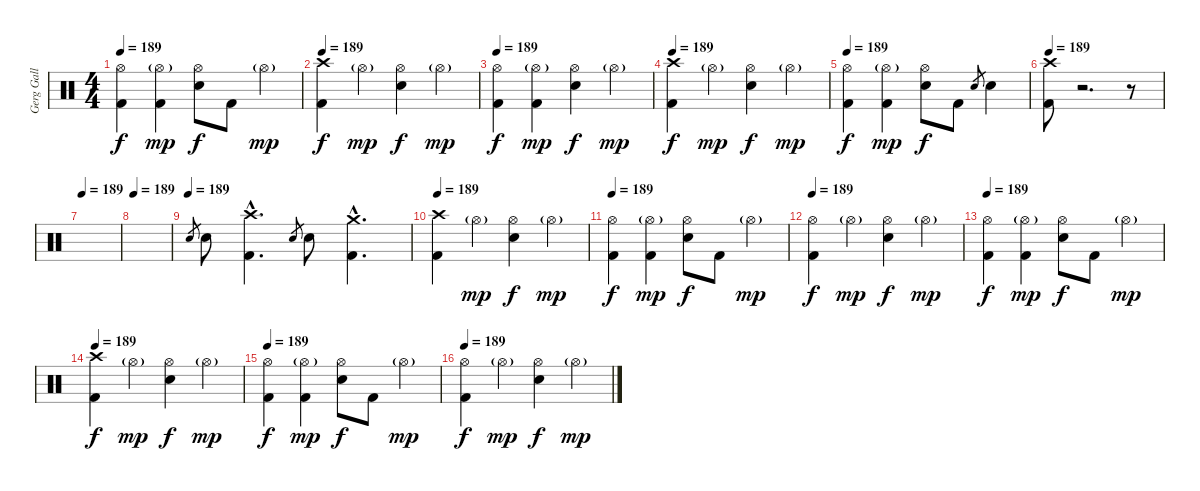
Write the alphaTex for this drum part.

\track ("Gerg Gall (Drums)" "Gerg Gall ") {instrument percussion}
\staff {score}
\articulation defaults
\ts (4 4)
\tempo 189
\clef neutral
\ks c
("Hi-Hat (open)" "Kick (hit) 2").4{dy f} ("Hi-Hat (open)"{g} "Kick (hit) 2").4{dy mp} ("Hi-Hat (open)" "Snare (hit) 2").8{dy f} "Kick (hit) 2".8 "Hi-Hat (open)"{g}.4{dy mp} |
\tempo 189
("Crash high (hit)" "Kick (hit) 2").4{dy f} "Hi-Hat (open)"{g}.4{dy mp} ("Hi-Hat (open)" "Snare (hit) 2").4{dy f} "Hi-Hat (open)"{g}.4{dy mp} |
\tempo 189
("Hi-Hat (open)" "Kick (hit) 2").4{dy f} ("Hi-Hat (open)"{g} "Kick (hit) 2").4{dy mp} ("Hi-Hat (open)" "Snare (hit) 2").4{dy f} "Hi-Hat (open)"{g}.4{dy mp} |
\tempo 189
("Crash high (hit)" "Kick (hit) 2").4{dy f} "Hi-Hat (open)"{g}.4{dy mp} ("Hi-Hat (open)" "Snare (hit) 2").4{dy f} "Hi-Hat (open)"{g}.4{dy mp} |
\tempo 189
("Hi-Hat (open)" "Kick (hit) 2").4{dy f} ("Hi-Hat (open)"{g} "Kick (hit) 2").4{dy mp} ("Hi-Hat (open)" "Snare (hit) 2").8{dy f} "Kick (hit) 2".8 "Snare (hit) 2".8{gr} "Snare (hit) 2".4 |
\tempo 189
("Crash high (hit)" "Kick (hit) 2").8 r.2{d volume 0} r.8 |
\tempo 189
|
\tempo 189
|
\tempo (189)
"Snare (hit) 2".8{gr} "Snare (hit) 2".8{volume 12} ("Crash high (hit)"{hac} "Kick (hit) 2"{hac}).4{d} "Snare (hit) 2".8{gr} "Snare (hit) 2".8 ("Crash medium (hit)"{hac} "Kick (hit) 2"{hac}).4{d} |
\tempo 189
("Crash high (hit)" "Kick (hit) 2").4 "Hi-Hat (open)"{g}.4{dy mp} ("Hi-Hat (open)" "Snare (hit) 2").4{dy f} "Hi-Hat (open)"{g}.4{dy mp} |
\tempo 189
("Hi-Hat (open)" "Kick (hit) 2").4{dy f} ("Hi-Hat (open)"{g} "Kick (hit) 2").4{dy mp} ("Hi-Hat (open)" "Snare (hit) 2").8{dy f} "Kick (hit) 2".8 "Hi-Hat (open)"{g}.4{dy mp} |
\tempo 189
("Hi-Hat (open)" "Kick (hit) 2").4{dy f} "Hi-Hat (open)"{g}.4{dy mp} ("Hi-Hat (open)" "Snare (hit) 2").4{dy f} "Hi-Hat (open)"{g}.4{dy mp} |
\tempo 189
("Hi-Hat (open)" "Kick (hit) 2").4{dy f} ("Hi-Hat (open)"{g} "Kick (hit) 2").4{dy mp} ("Hi-Hat (open)" "Snare (hit) 2").8{dy f} "Kick (hit) 2".8 "Hi-Hat (open)"{g}.4{dy mp} |
\tempo 189
("Crash high (hit)" "Kick (hit) 2").4{dy f} "Hi-Hat (open)"{g}.4{dy mp} ("Hi-Hat (open)" "Snare (hit) 2").4{dy f} "Hi-Hat (open)"{g}.4{dy mp} |
\tempo 189
("Hi-Hat (open)" "Kick (hit) 2").4{dy f} ("Hi-Hat (open)"{g} "Kick (hit) 2").4{dy mp} ("Hi-Hat (open)" "Snare (hit) 2").8{dy f} "Kick (hit) 2".8 "Hi-Hat (open)"{g}.4{dy mp} |
\tempo 189
("Hi-Hat (open)" "Kick (hit) 2").4{dy f} "Hi-Hat (open)"{g}.4{dy mp} ("Hi-Hat (open)" "Snare (hit) 2").4{dy f} "Hi-Hat (open)"{g}.4{dy mp}
